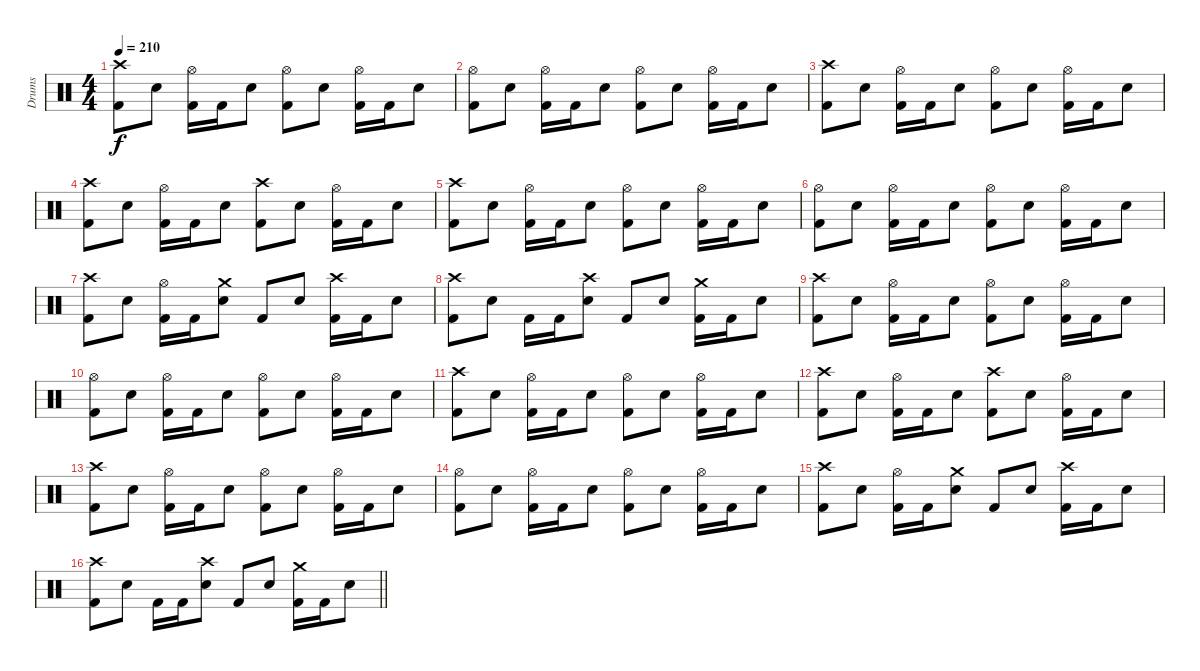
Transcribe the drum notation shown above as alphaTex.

\track ("Drums" "Drums") {instrument percussion}
\staff {score}
\articulation defaults
\ts (4 4)
\section ("" "")
\tempo 210
\clef neutral
\ks c
("Crash high (hit)" "Kick (hit) 2").8{dy f} "Snare (hit) 2".8 ("Hi-Hat (open)" "Kick (hit) 2").16 "Kick (hit) 2".16 "Snare (hit) 2".8 ("Hi-Hat (open)" "Kick (hit) 2").8 "Snare (hit) 2".8 ("Hi-Hat (open)" "Kick (hit) 2").16 "Kick (hit) 2".16 "Snare (hit) 2".8 |
("Hi-Hat (open)" "Kick (hit) 2").8 "Snare (hit) 2".8 ("Hi-Hat (open)" "Kick (hit) 2").16 "Kick (hit) 2".16 "Snare (hit) 2".8 ("Hi-Hat (open)" "Kick (hit) 2").8 "Snare (hit) 2".8 ("Hi-Hat (open)" "Kick (hit) 2").16 "Kick (hit) 2".16 "Snare (hit) 2".8 |
("Crash high (hit)" "Kick (hit) 2").8 "Snare (hit) 2".8 ("Hi-Hat (open)" "Kick (hit) 2").16 "Kick (hit) 2".16 "Snare (hit) 2".8 ("Hi-Hat (open)" "Kick (hit) 2").8 "Snare (hit) 2".8 ("Hi-Hat (open)" "Kick (hit) 2").16 "Kick (hit) 2".16 "Snare (hit) 2".8 |
("Crash high (hit)" "Kick (hit) 2").8 "Snare (hit) 2".8 ("Hi-Hat (open)" "Kick (hit) 2").16 "Kick (hit) 2".16 "Snare (hit) 2".8 ("Crash high (hit)" "Kick (hit) 2").8 "Snare (hit) 2".8 ("Hi-Hat (open)" "Kick (hit) 2").16 "Kick (hit) 2".16 "Snare (hit) 2".8 |
("Crash high (hit)" "Kick (hit) 2").8 "Snare (hit) 2".8 ("Hi-Hat (open)" "Kick (hit) 2").16 "Kick (hit) 2".16 "Snare (hit) 2".8 ("Hi-Hat (open)" "Kick (hit) 2").8 "Snare (hit) 2".8 ("Hi-Hat (open)" "Kick (hit) 2").16 "Kick (hit) 2".16 "Snare (hit) 2".8 |
("Hi-Hat (open)" "Kick (hit) 2").8 "Snare (hit) 2".8 ("Hi-Hat (open)" "Kick (hit) 2").16 "Kick (hit) 2".16 "Snare (hit) 2".8 ("Hi-Hat (open)" "Kick (hit) 2").8 "Snare (hit) 2".8 ("Hi-Hat (open)" "Kick (hit) 2").16 "Kick (hit) 2".16 "Snare (hit) 2".8 |
("Crash high (hit)" "Kick (hit) 2").8 "Snare (hit) 2".8 ("Hi-Hat (open)" "Kick (hit) 2").16 "Kick (hit) 2".16 ("Crash medium (hit)" "Snare (hit) 2").8 "Kick (hit) 2".8 "Snare (hit) 2".8 ("Crash high (hit)" "Kick (hit) 2").16 "Kick (hit) 2".16 "Snare (hit) 2".8 |
("Crash high (hit)" "Kick (hit) 2").8 "Snare (hit) 2".8 "Kick (hit) 2".16 "Kick (hit) 2".16 ("Crash high (hit)" "Snare (hit) 2").8 "Kick (hit) 2".8 "Snare (hit) 2".8 ("Crash medium (hit)" "Kick (hit) 2").16 "Kick (hit) 2".16 "Snare (hit) 2".8 |
("Crash high (hit)" "Kick (hit) 2").8 "Snare (hit) 2".8 ("Hi-Hat (open)" "Kick (hit) 2").16 "Kick (hit) 2".16 "Snare (hit) 2".8 ("Hi-Hat (open)" "Kick (hit) 2").8 "Snare (hit) 2".8 ("Hi-Hat (open)" "Kick (hit) 2").16 "Kick (hit) 2".16 "Snare (hit) 2".8 |
("Hi-Hat (open)" "Kick (hit) 2").8 "Snare (hit) 2".8 ("Hi-Hat (open)" "Kick (hit) 2").16 "Kick (hit) 2".16 "Snare (hit) 2".8 ("Hi-Hat (open)" "Kick (hit) 2").8 "Snare (hit) 2".8 ("Hi-Hat (open)" "Kick (hit) 2").16 "Kick (hit) 2".16 "Snare (hit) 2".8 |
("Crash high (hit)" "Kick (hit) 2").8 "Snare (hit) 2".8 ("Hi-Hat (open)" "Kick (hit) 2").16 "Kick (hit) 2".16 "Snare (hit) 2".8 ("Hi-Hat (open)" "Kick (hit) 2").8 "Snare (hit) 2".8 ("Hi-Hat (open)" "Kick (hit) 2").16 "Kick (hit) 2".16 "Snare (hit) 2".8 |
("Crash high (hit)" "Kick (hit) 2").8 "Snare (hit) 2".8 ("Hi-Hat (open)" "Kick (hit) 2").16 "Kick (hit) 2".16 "Snare (hit) 2".8 ("Crash high (hit)" "Kick (hit) 2").8 "Snare (hit) 2".8 ("Hi-Hat (open)" "Kick (hit) 2").16 "Kick (hit) 2".16 "Snare (hit) 2".8 |
("Crash high (hit)" "Kick (hit) 2").8 "Snare (hit) 2".8 ("Hi-Hat (open)" "Kick (hit) 2").16 "Kick (hit) 2".16 "Snare (hit) 2".8 ("Hi-Hat (open)" "Kick (hit) 2").8 "Snare (hit) 2".8 ("Hi-Hat (open)" "Kick (hit) 2").16 "Kick (hit) 2".16 "Snare (hit) 2".8 |
("Hi-Hat (open)" "Kick (hit) 2").8 "Snare (hit) 2".8 ("Hi-Hat (open)" "Kick (hit) 2").16 "Kick (hit) 2".16 "Snare (hit) 2".8 ("Hi-Hat (open)" "Kick (hit) 2").8 "Snare (hit) 2".8 ("Hi-Hat (open)" "Kick (hit) 2").16 "Kick (hit) 2".16 "Snare (hit) 2".8 |
("Crash high (hit)" "Kick (hit) 2").8 "Snare (hit) 2".8 ("Hi-Hat (open)" "Kick (hit) 2").16 "Kick (hit) 2".16 ("Crash medium (hit)" "Snare (hit) 2").8 "Kick (hit) 2".8 "Snare (hit) 2".8 ("Crash high (hit)" "Kick (hit) 2").16 "Kick (hit) 2".16 "Snare (hit) 2".8 |
\barLineRight lightlight
("Crash high (hit)" "Kick (hit) 2").8 "Snare (hit) 2".8 "Kick (hit) 2".16 "Kick (hit) 2".16 ("Crash high (hit)" "Snare (hit) 2").8 "Kick (hit) 2".8 "Snare (hit) 2".8 ("Crash medium (hit)" "Kick (hit) 2").16 "Kick (hit) 2".16 "Snare (hit) 2".8
